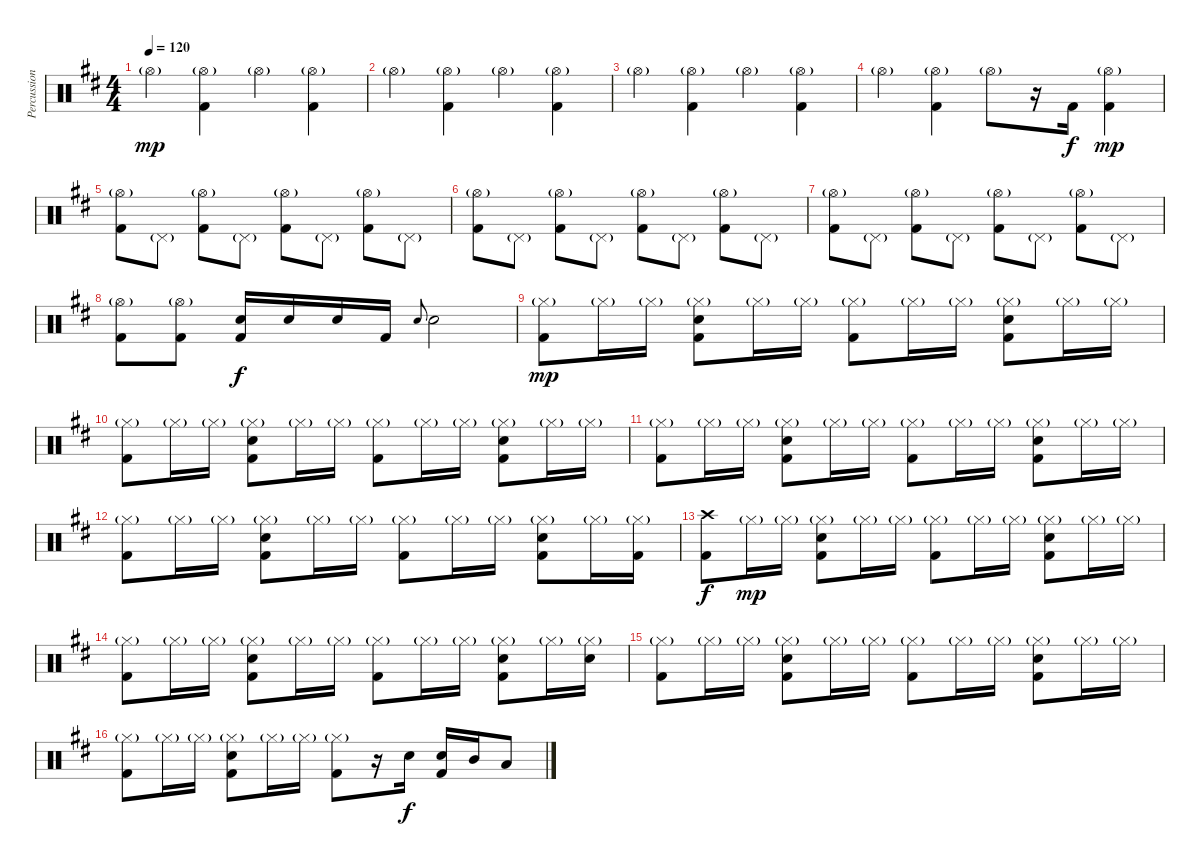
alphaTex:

\track ("Percussion" "Percussion") {instrument percussion}
\staff {score}
\articulation defaults
\ts (4 4)
\tempo 120
\clef neutral
\ks d "Hi-Hat (open)"{g}.4{dy mp}
("Hi-Hat (open)"{g} "Kick (hit) 2").4 "Hi-Hat (open)"{g}.4 ("Hi-Hat (open)"{g} "Kick (hit) 2").4 |
"Hi-Hat (open)"{g}.4 ("Hi-Hat (open)"{g} "Kick (hit) 2").4 "Hi-Hat (open)"{g}.4 ("Hi-Hat (open)"{g} "Kick (hit) 2").4 |
"Hi-Hat (open)"{g}.4 ("Hi-Hat (open)"{g} "Kick (hit) 2").4 "Hi-Hat (open)"{g}.4 ("Hi-Hat (open)"{g} "Kick (hit) 2").4 |
"Hi-Hat (open)"{g}.4 ("Hi-Hat (open)"{g} "Kick (hit) 2").4 "Hi-Hat (open)"{g}.8 r.16 "Kick (hit) 2".16{dy f} ("Hi-Hat (open)"{g} "Kick (hit) 2").4{dy mp} |
("Hi-Hat (open)"{g} "Kick (hit) 2").8 "Pedal Hi-Hat (hit)"{g}.8 ("Hi-Hat (open)"{g} "Kick (hit) 2").8 "Pedal Hi-Hat (hit)"{g}.8 ("Hi-Hat (open)"{g} "Kick (hit) 2").8 "Pedal Hi-Hat (hit)"{g}.8 ("Hi-Hat (open)"{g} "Kick (hit) 2").8 "Pedal Hi-Hat (hit)"{g}.8 |
("Hi-Hat (open)"{g} "Kick (hit) 2").8 "Pedal Hi-Hat (hit)"{g}.8 ("Hi-Hat (open)"{g} "Kick (hit) 2").8 "Pedal Hi-Hat (hit)"{g}.8 ("Hi-Hat (open)"{g} "Kick (hit) 2").8 "Pedal Hi-Hat (hit)"{g}.8 ("Hi-Hat (open)"{g} "Kick (hit) 2").8 "Pedal Hi-Hat (hit)"{g}.8 |
("Hi-Hat (open)"{g} "Kick (hit) 2").8 "Pedal Hi-Hat (hit)"{g}.8 ("Hi-Hat (open)"{g} "Kick (hit) 2").8 "Pedal Hi-Hat (hit)"{g}.8 ("Hi-Hat (open)"{g} "Kick (hit) 2").8 "Pedal Hi-Hat (hit)"{g}.8 ("Hi-Hat (open)"{g} "Kick (hit) 2").8 "Pedal Hi-Hat (hit)"{g}.8 |
("Hi-Hat (open)"{g} "Kick (hit) 2").8 ("Hi-Hat (open)"{g} "Kick (hit) 2").8 ("Electric Snare (hit)" "Kick (hit) 2").16{dy f} "Electric Snare (hit)".16 "Electric Snare (hit)".16 "Kick (hit) 2".16 "Electric Snare (hit)".8{gr onbeat} "Electric Snare (hit)".2 |
("Hi-Hat (closed)"{g} "Kick (hit) 2").8{dy mp} "Hi-Hat (closed)"{g}.16 "Hi-Hat (closed)"{g}.16 ("Hi-Hat (closed)"{g} "Snare (hit) 2" "Kick (hit) 2").8 "Hi-Hat (closed)"{g}.16 "Hi-Hat (closed)"{g}.16 ("Hi-Hat (closed)"{g} "Kick (hit) 2").8 "Hi-Hat (closed)"{g}.16 "Hi-Hat (closed)"{g}.16 ("Hi-Hat (closed)"{g} "Snare (hit) 2" "Kick (hit) 2").8 "Hi-Hat (closed)"{g}.16 "Hi-Hat (closed)"{g}.16 |
("Hi-Hat (closed)"{g} "Kick (hit) 2").8 "Hi-Hat (closed)"{g}.16 "Hi-Hat (closed)"{g}.16 ("Hi-Hat (closed)"{g} "Snare (hit) 2" "Kick (hit) 2").8 "Hi-Hat (closed)"{g}.16 "Hi-Hat (closed)"{g}.16 ("Hi-Hat (closed)"{g} "Kick (hit) 2").8 "Hi-Hat (closed)"{g}.16 "Hi-Hat (closed)"{g}.16 ("Hi-Hat (closed)"{g} "Snare (hit) 2" "Kick (hit) 2").8 "Hi-Hat (closed)"{g}.16 "Hi-Hat (closed)"{g}.16 |
("Hi-Hat (closed)"{g} "Kick (hit) 2").8 "Hi-Hat (closed)"{g}.16 "Hi-Hat (closed)"{g}.16 ("Hi-Hat (closed)"{g} "Snare (hit) 2" "Kick (hit) 2").8 "Hi-Hat (closed)"{g}.16 "Hi-Hat (closed)"{g}.16 ("Hi-Hat (closed)"{g} "Kick (hit) 2").8 "Hi-Hat (closed)"{g}.16 "Hi-Hat (closed)"{g}.16 ("Hi-Hat (closed)"{g} "Snare (hit) 2" "Kick (hit) 2").8 "Hi-Hat (closed)"{g}.16 "Hi-Hat (closed)"{g}.16 |
("Hi-Hat (closed)"{g} "Kick (hit) 2").8 "Hi-Hat (closed)"{g}.16 "Hi-Hat (closed)"{g}.16 ("Hi-Hat (closed)"{g} "Snare (hit) 2" "Kick (hit) 2").8 "Hi-Hat (closed)"{g}.16 "Hi-Hat (closed)"{g}.16 ("Hi-Hat (closed)"{g} "Kick (hit) 2").8 "Hi-Hat (closed)"{g}.16 "Hi-Hat (closed)"{g}.16 ("Hi-Hat (closed)"{g} "Snare (hit) 2" "Kick (hit) 2").8 "Hi-Hat (closed)"{g}.16 ("Hi-Hat (closed)"{g} "Kick (hit) 2").16 |
("Crash high (hit)" "Kick (hit) 2").8{dy f} "Hi-Hat (closed)"{g}.16{dy mp} "Hi-Hat (closed)"{g}.16 ("Hi-Hat (closed)"{g} "Snare (hit) 2" "Kick (hit) 2").8 "Hi-Hat (closed)"{g}.16 "Hi-Hat (closed)"{g}.16 ("Hi-Hat (closed)"{g} "Kick (hit) 2").8 "Hi-Hat (closed)"{g}.16 "Hi-Hat (closed)"{g}.16 ("Hi-Hat (closed)"{g} "Snare (hit) 2" "Kick (hit) 2").8 "Hi-Hat (closed)"{g}.16 "Hi-Hat (closed)"{g}.16 |
("Hi-Hat (closed)"{g} "Kick (hit) 2").8 "Hi-Hat (closed)"{g}.16 "Hi-Hat (closed)"{g}.16 ("Hi-Hat (closed)"{g} "Snare (hit) 2" "Kick (hit) 2").8 "Hi-Hat (closed)"{g}.16 "Hi-Hat (closed)"{g}.16 ("Hi-Hat (closed)"{g} "Kick (hit) 2").8 "Hi-Hat (closed)"{g}.16 "Hi-Hat (closed)"{g}.16 ("Hi-Hat (closed)"{g} "Snare (hit) 2" "Kick (hit) 2").8 "Hi-Hat (closed)"{g}.16 ("Hi-Hat (closed)"{g} "Snare (hit) 2").16 |
("Hi-Hat (closed)"{g} "Kick (hit) 2").8 "Hi-Hat (closed)"{g}.16 "Hi-Hat (closed)"{g}.16 ("Hi-Hat (closed)"{g} "Snare (hit) 2" "Kick (hit) 2").8 "Hi-Hat (closed)"{g}.16 "Hi-Hat (closed)"{g}.16 ("Hi-Hat (closed)"{g} "Kick (hit) 2").8 "Hi-Hat (closed)"{g}.16 "Hi-Hat (closed)"{g}.16 ("Hi-Hat (closed)"{g} "Snare (hit) 2" "Kick (hit) 2").8 "Hi-Hat (closed)"{g}.16 "Hi-Hat (closed)"{g}.16 |
("Hi-Hat (closed)"{g} "Kick (hit) 2").8 "Hi-Hat (closed)"{g}.16 "Hi-Hat (closed)"{g}.16 ("Hi-Hat (closed)"{g} "Snare (hit) 2" "Kick (hit) 2").8 "Hi-Hat (closed)"{g}.16 "Hi-Hat (closed)"{g}.16 ("Hi-Hat (closed)"{g} "Kick (hit) 2").8 r.16 "Snare (hit) 2".16{dy f} ("Snare (hit) 2" "Kick (hit) 2").16 "Mid Tom (hit)".16 "Low Tom (hit)".8
